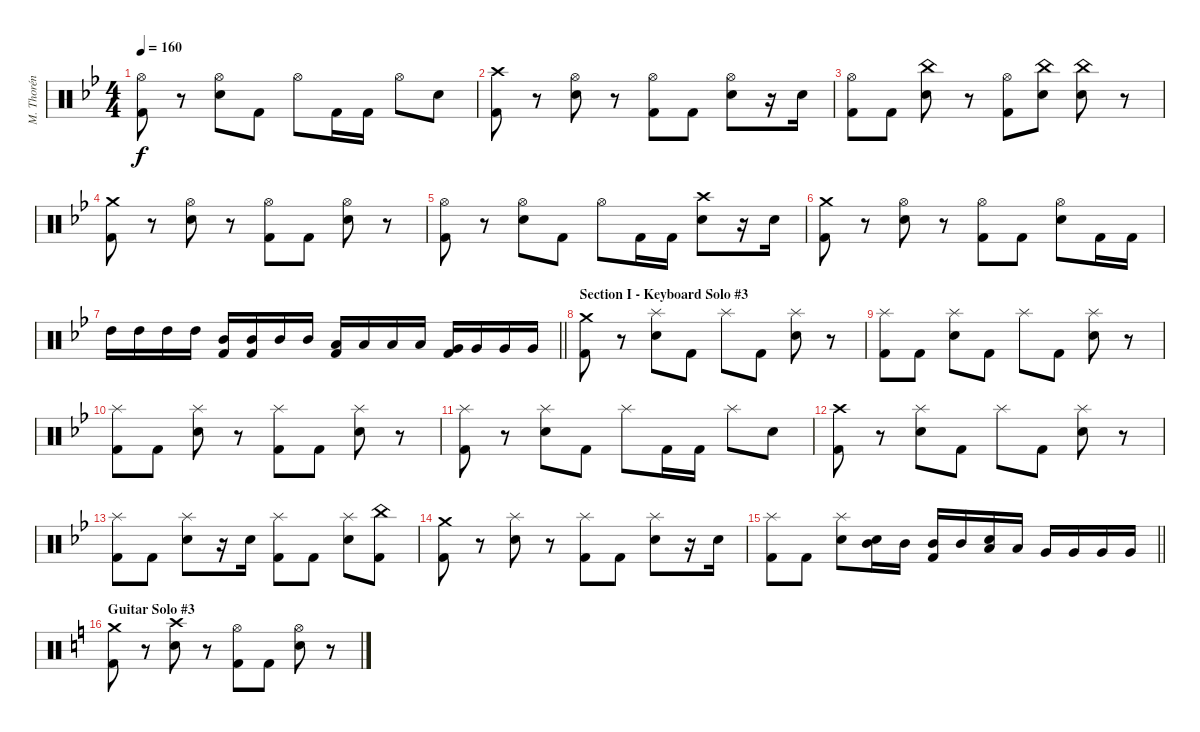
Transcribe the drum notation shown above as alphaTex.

\track ("M. Thorén (Drums)" "M. Thorén ") {instrument percussion}
\staff {score}
\articulation defaults
\ts (4 4)
\tempo 160
\clef neutral
\ks gminor
("Hi-Hat (open)" "Kick (hit) 2").8{dy f} r.8 ("Hi-Hat (open)" "Electric Snare (hit)").8 "Kick (hit) 2".8 "Hi-Hat (open)".8 "Kick (hit) 2".16 "Kick (hit) 2".16 "Hi-Hat (open)".8 "Electric Snare (hit)".8 |
("Crash high (hit)" "Kick (hit) 2").8 r.8 ("Hi-Hat (open)" "Electric Snare (hit)").8 r.8 ("Hi-Hat (open)" "Kick (hit) 2").8 "Kick (hit) 2".8 ("Hi-Hat (open)" "Electric Snare (hit)").8 r.16 "Electric Snare (hit)".16 |
("Hi-Hat (open)" "Kick (hit) 2").8 "Kick (hit) 2".8 ("China (hit)" "Electric Snare (hit)").8 r.8 ("Hi-Hat (open)" "Kick (hit) 2").8 ("China (hit)" "Electric Snare (hit)").8 ("China (hit)" "Electric Snare (hit)").8 r.8 |
("Crash medium (hit)" "Kick (hit) 2").8 r.8 ("Hi-Hat (open)" "Electric Snare (hit)").8 r.8 ("Hi-Hat (open)" "Kick (hit) 2").8 "Kick (hit) 2".8 ("Hi-Hat (open)" "Electric Snare (hit)").8 r.8 |
("Hi-Hat (open)" "Kick (hit) 2").8 r.8 ("Hi-Hat (open)" "Electric Snare (hit)").8 "Kick (hit) 2".8 "Hi-Hat (open)".8 "Kick (hit) 2".16 "Kick (hit) 2".16 ("Crash high (hit)" "Electric Snare (hit)").8 r.16 "Electric Snare (hit)".16 |
("Crash medium (hit)" "Kick (hit) 2").8 r.8 ("Hi-Hat (open)" "Electric Snare (hit)").8 r.8 ("Hi-Hat (open)" "Kick (hit) 2").8 "Kick (hit) 2".8 ("Hi-Hat (open)" "Electric Snare (hit)").8 "Kick (hit) 2".16 "Kick (hit) 2".16 |
\barLineRight lightlight "High Tom (hit)".16 "High Tom (hit)".16 "High Tom (hit)".16 "High Tom (hit)".16
("Mid Tom (hit)" "Kick (hit) 2").16 ("Mid Tom (hit)" "Kick (hit) 2").16 "Mid Tom (hit)".16 "Mid Tom (hit)".16 ("Low Tom (hit)" "Kick (hit) 2").16 "Low Tom (hit)".16 "Low Tom (hit)".16 "Low Tom (hit)".16 ("Very Low Tom (hit)" "Kick (hit) 2").16 "Very Low Tom (hit)".16 "Very Low Tom (hit)".16 "Very Low Tom (hit)".16 |
\section ("" "Section I - Keyboard Solo #3")
("Crash medium (hit)" "Kick (hit) 2").8 r.8 ("Splash (hit)" "Electric Snare (hit)").8 "Kick (hit) 2".8 "Splash (hit)".8 "Kick (hit) 2".8 ("Splash (hit)" "Electric Snare (hit)").8 r.8 |
("Splash (hit)" "Kick (hit) 2").8 "Kick (hit) 2".8 ("Splash (hit)" "Electric Snare (hit)").8 "Kick (hit) 2".8 "Splash (hit)".8 "Kick (hit) 2".8 ("Splash (hit)" "Electric Snare (hit)").8 r.8 |
("Splash (hit)" "Kick (hit) 2").8 "Kick (hit) 2".8 ("Splash (hit)" "Electric Snare (hit)").8 r.8 ("Splash (hit)" "Kick (hit) 2").8 "Kick (hit) 2".8 ("Splash (hit)" "Electric Snare (hit)").8 r.8 |
("Splash (hit)" "Kick (hit) 2").8 r.8 ("Splash (hit)" "Electric Snare (hit)").8 "Kick (hit) 2".8 "Splash (hit)".8 "Kick (hit) 2".16 "Kick (hit) 2".16 "Splash (hit)".8 "Electric Snare (hit)".8 |
("Crash high (hit)" "Kick (hit) 2").8 r.8 ("Splash (hit)" "Electric Snare (hit)").8 "Kick (hit) 2".8 "Splash (hit)".8 "Kick (hit) 2".8 ("Splash (hit)" "Electric Snare (hit)").8 r.8 |
("Splash (hit)" "Kick (hit) 2").8 "Kick (hit) 2".8 ("Splash (hit)" "Electric Snare (hit)").8 r.16 "Electric Snare (hit)".16 ("Splash (hit)" "Kick (hit) 2").8 "Kick (hit) 2".8 ("Splash (hit)" "Electric Snare (hit)").8 ("China (hit)" "Kick (hit) 2").8 |
("Crash medium (hit)" "Kick (hit) 2").8 r.8 ("Splash (hit)" "Electric Snare (hit)").8 r.8 ("Splash (hit)" "Kick (hit) 2").8 "Kick (hit) 2".8 ("Splash (hit)" "Electric Snare (hit)").8 r.16 "Electric Snare (hit)".16 |
\barLineRight lightlight
("Splash (hit)" "Kick (hit) 2").8 "Kick (hit) 2".8 ("Splash (hit)" "Electric Snare (hit)").8 ("Mid Tom (hit)" "Electric Snare (hit)").16 "Mid Tom (hit)".16 ("Mid Tom (hit)" "Kick (hit) 2").16 "Mid Tom (hit)".16 ("Low Tom (hit)" "Electric Snare (hit)").16 "Low Tom (hit)".16 "Very Low Tom (hit)".16 "Very Low Tom (hit)".16 "Very Low Tom (hit)".16 "Very Low Tom (hit)".16 |
\section ("" "Guitar Solo #3")
\ks aminor
("Crash medium (hit)" "Kick (hit) 2").8 r.8 ("Crash high (hit)" "Electric Snare (hit)").8 r.8 ("Hi-Hat (open)" "Kick (hit) 2").8 "Kick (hit) 2".8 ("Hi-Hat (open)" "Electric Snare (hit)").8 r.8
